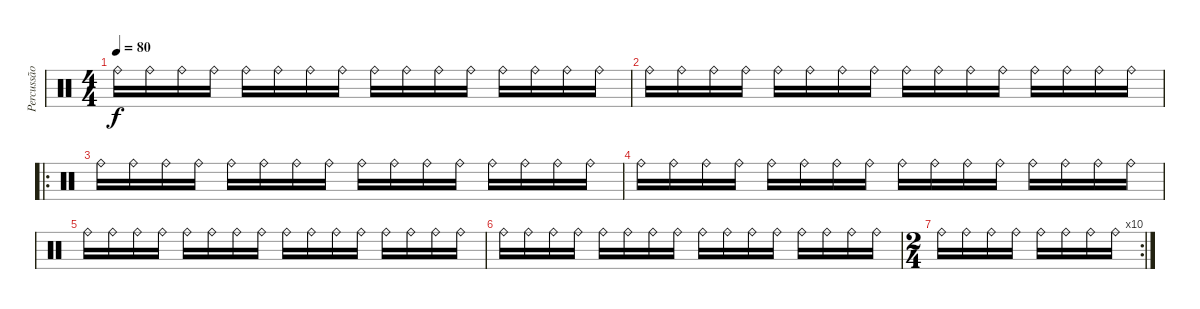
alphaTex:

\track ("Percussão" "Percussão") {instrument percussion}
\staff {score}
\articulation defaults
\ts (4 4)
\tempo 80
\clef neutral
\ks c "Ride (bell)".16{dy f} "Ride (bell)".16 "Ride (bell)".16 "Ride (bell)".16 "Ride (bell)".16 "Ride (bell)".16 "Ride (bell)".16 "Ride (bell)".16 "Ride (bell)".16 "Ride (bell)".16 "Ride (bell)".16 "Ride (bell)".16 "Ride (bell)".16 "Ride (bell)".16 "Ride (bell)".16 "Ride (bell)".16
|
"Ride (bell)".16 "Ride (bell)".16 "Ride (bell)".16 "Ride (bell)".16 "Ride (bell)".16 "Ride (bell)".16 "Ride (bell)".16 "Ride (bell)".16 "Ride (bell)".16 "Ride (bell)".16 "Ride (bell)".16 "Ride (bell)".16 "Ride (bell)".16 "Ride (bell)".16 "Ride (bell)".16 "Ride (bell)".16 |
\ro "Ride (bell)".16 "Ride (bell)".16 "Ride (bell)".16 "Ride (bell)".16 "Ride (bell)".16 "Ride (bell)".16 "Ride (bell)".16 "Ride (bell)".16 "Ride (bell)".16 "Ride (bell)".16 "Ride (bell)".16 "Ride (bell)".16 "Ride (bell)".16 "Ride (bell)".16 "Ride (bell)".16 "Ride (bell)".16
|
"Ride (bell)".16 "Ride (bell)".16 "Ride (bell)".16 "Ride (bell)".16 "Ride (bell)".16 "Ride (bell)".16 "Ride (bell)".16 "Ride (bell)".16 "Ride (bell)".16 "Ride (bell)".16 "Ride (bell)".16 "Ride (bell)".16 "Ride (bell)".16 "Ride (bell)".16 "Ride (bell)".16 "Ride (bell)".16 |
"Ride (bell)".16 "Ride (bell)".16 "Ride (bell)".16 "Ride (bell)".16 "Ride (bell)".16 "Ride (bell)".16 "Ride (bell)".16 "Ride (bell)".16 "Ride (bell)".16 "Ride (bell)".16 "Ride (bell)".16 "Ride (bell)".16 "Ride (bell)".16 "Ride (bell)".16 "Ride (bell)".16 "Ride (bell)".16 |
"Ride (bell)".16 "Ride (bell)".16 "Ride (bell)".16 "Ride (bell)".16 "Ride (bell)".16 "Ride (bell)".16 "Ride (bell)".16 "Ride (bell)".16 "Ride (bell)".16 "Ride (bell)".16 "Ride (bell)".16 "Ride (bell)".16 "Ride (bell)".16 "Ride (bell)".16 "Ride (bell)".16 "Ride (bell)".16 |
\rc 10
\ts (2 4)
"Ride (bell)".16 "Ride (bell)".16 "Ride (bell)".16 "Ride (bell)".16 "Ride (bell)".16 "Ride (bell)".16 "Ride (bell)".16 "Ride (bell)".16
